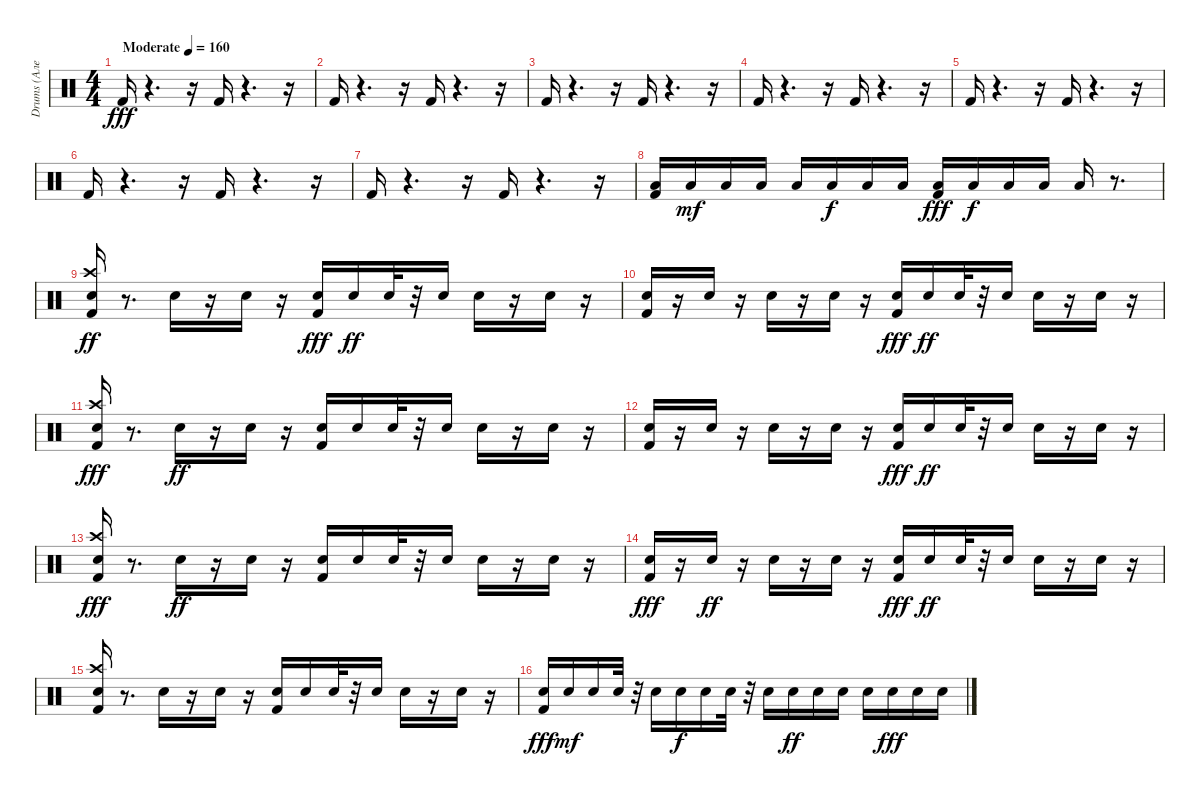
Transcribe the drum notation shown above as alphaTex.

\track ("Drums (Алексей Барзилович)" "Drums (Але") {instrument percussion}
\staff {score}
\articulation defaults
\ts (4 4)
\tempo (160 "Moderate")
\clef neutral
\ks c "Kick (hit) 2".16{dy fff}
r.4{d} r.16 "Kick (hit) 2".16 r.4{d} r.16 |
"Kick (hit) 2".16 r.4{d} r.16 "Kick (hit) 2".16 r.4{d} r.16 |
"Kick (hit) 2".16 r.4{d} r.16 "Kick (hit) 2".16 r.4{d} r.16 |
"Kick (hit) 2".16 r.4{d} r.16 "Kick (hit) 2".16 r.4{d} r.16 |
"Kick (hit) 2".16 r.4{d} r.16 "Kick (hit) 2".16 r.4{d} r.16 |
"Kick (hit) 2".16 r.4{d} r.16 "Kick (hit) 2".16 r.4{d} r.16 |
"Kick (hit) 2".16 r.4{d} r.16 "Kick (hit) 2".16 r.4{d} r.16 |
("Low Floor Tom (hit)" "Kick (hit) 2").16 "Low Floor Tom (hit)".16{dy mf} "Low Floor Tom (hit)".16 "Low Floor Tom (hit)".16 "Low Floor Tom (hit)".16 "Low Floor Tom (hit)".16{dy f} "Low Floor Tom (hit)".16 "Low Floor Tom (hit)".16 ("Kick (hit) 2" "Low Floor Tom (hit)").16{dy fff} "Low Floor Tom (hit)".16{dy f} "Low Floor Tom (hit)".16 "Low Floor Tom (hit)".16 "Low Floor Tom (hit)".16 r.8{d} |
("Kick (hit) 2" "Crash high (hit)" "Electric Snare (hit)").16{dy ff} r.8{d} "Electric Snare (hit)".16 r.16 "Electric Snare (hit)".16 r.16 ("Electric Snare (hit)" "Kick (hit) 2").16{dy fff} "Electric Snare (hit)".16{dy ff} "Electric Snare (hit)".32 r.32 "Electric Snare (hit)".16 "Electric Snare (hit)".16 r.16 "Electric Snare (hit)".16 r.16 |
("Kick (hit) 2" "Electric Snare (hit)").16 r.16 "Electric Snare (hit)".16 r.16 "Electric Snare (hit)".16 r.16 "Electric Snare (hit)".16 r.16 ("Electric Snare (hit)" "Kick (hit) 2").16{dy fff} "Electric Snare (hit)".16{dy ff} "Electric Snare (hit)".32 r.32 "Electric Snare (hit)".16 "Electric Snare (hit)".16 r.16 "Electric Snare (hit)".16 r.16 |
("Crash high (hit)" "Electric Snare (hit)" "Kick (hit) 2").16{dy fff} r.8{d} "Electric Snare (hit)".16{dy ff} r.16 "Electric Snare (hit)".16 r.16 ("Kick (hit) 2" "Electric Snare (hit)").16 "Electric Snare (hit)".16 "Electric Snare (hit)".32 r.32 "Electric Snare (hit)".16 "Electric Snare (hit)".16 r.16 "Electric Snare (hit)".16 r.16 |
("Kick (hit) 2" "Electric Snare (hit)").16 r.16 "Electric Snare (hit)".16 r.16 "Electric Snare (hit)".16 r.16 "Electric Snare (hit)".16 r.16 ("Electric Snare (hit)" "Kick (hit) 2").16{dy fff} "Electric Snare (hit)".16{dy ff} "Electric Snare (hit)".32 r.32 "Electric Snare (hit)".16 "Electric Snare (hit)".16 r.16 "Electric Snare (hit)".16 r.16 |
("Crash high (hit)" "Electric Snare (hit)" "Kick (hit) 2").16{dy fff} r.8{d} "Electric Snare (hit)".16{dy ff} r.16 "Electric Snare (hit)".16 r.16 ("Kick (hit) 2" "Electric Snare (hit)").16 "Electric Snare (hit)".16 "Electric Snare (hit)".32 r.32 "Electric Snare (hit)".16 "Electric Snare (hit)".16 r.16 "Electric Snare (hit)".16 r.16 |
("Electric Snare (hit)" "Kick (hit) 2").16{dy fff} r.16 "Electric Snare (hit)".16{dy ff} r.16 "Electric Snare (hit)".16 r.16 "Electric Snare (hit)".16 r.16 ("Electric Snare (hit)" "Kick (hit) 2").16{dy fff} "Electric Snare (hit)".16{dy ff} "Electric Snare (hit)".32 r.32 "Electric Snare (hit)".16 "Electric Snare (hit)".16 r.16 "Electric Snare (hit)".16 r.16 |
("Kick (hit) 2" "Crash high (hit)" "Electric Snare (hit)").16 r.8{d} "Electric Snare (hit)".16 r.16 "Electric Snare (hit)".16 r.16 ("Kick (hit) 2" "Electric Snare (hit)").16 "Electric Snare (hit)".16 "Electric Snare (hit)".32 r.32 "Electric Snare (hit)".16 "Electric Snare (hit)".16 r.16 "Electric Snare (hit)".16 r.16 |
("Electric Snare (hit)" "Kick (hit) 2").16{dy fff} "Electric Snare (hit)".16{dy mf} "Electric Snare (hit)".16 "Electric Snare (hit)".32 r.32 "Electric Snare (hit)".16 "Electric Snare (hit)".16{dy f} "Electric Snare (hit)".16 "Electric Snare (hit)".32 r.32 "Electric Snare (hit)".16 "Electric Snare (hit)".16{dy ff} "Electric Snare (hit)".16 "Electric Snare (hit)".16 "Electric Snare (hit)".16 "Electric Snare (hit)".16{dy fff} "Electric Snare (hit)".16 "Electric Snare (hit)".16
